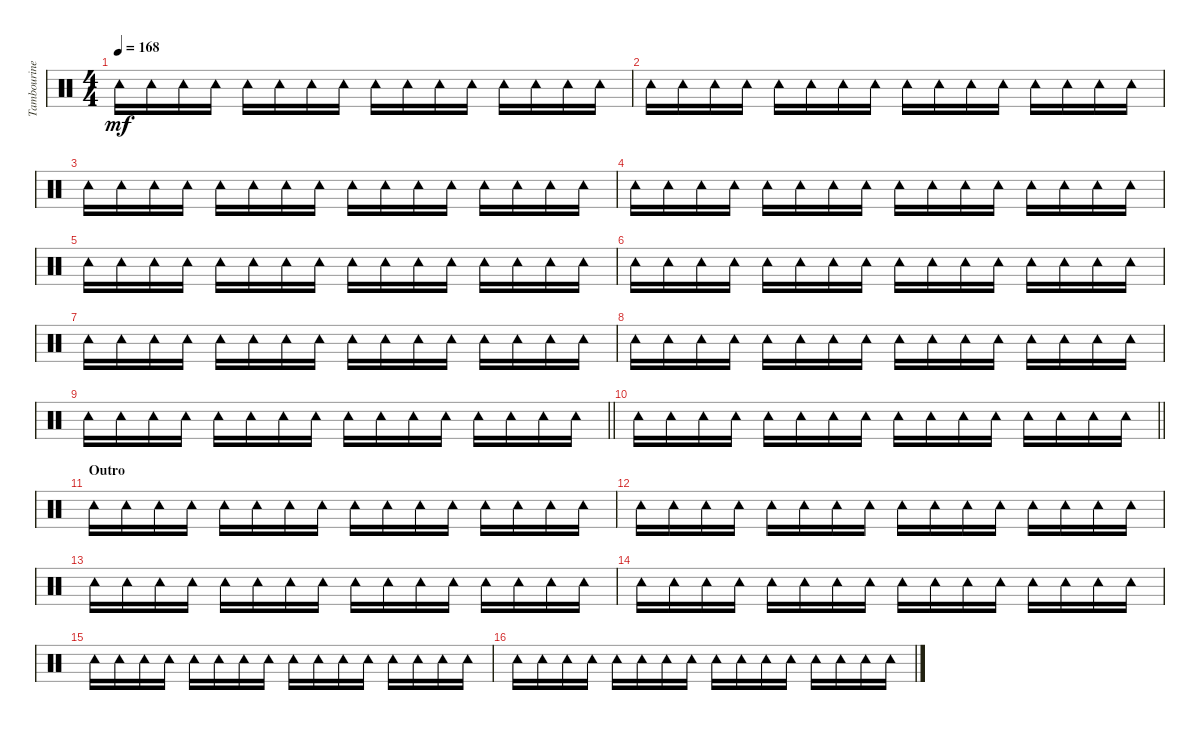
\track ("Tambourine" "Tambourine") {instrument percussion}
\staff {score}
\articulation defaults
\ts (4 4)
\tempo 168
\clef neutral
\ks c "Tambourine (hit)".16{dy mf} "Tambourine (hit)".16 "Tambourine (hit)".16 "Tambourine (hit)".16 "Tambourine (hit)".16 "Tambourine (hit)".16 "Tambourine (hit)".16 "Tambourine (hit)".16 "Tambourine (hit)".16 "Tambourine (hit)".16 "Tambourine (hit)".16 "Tambourine (hit)".16 "Tambourine (hit)".16 "Tambourine (hit)".16 "Tambourine (hit)".16 "Tambourine (hit)".16
|
"Tambourine (hit)".16 "Tambourine (hit)".16 "Tambourine (hit)".16 "Tambourine (hit)".16 "Tambourine (hit)".16 "Tambourine (hit)".16 "Tambourine (hit)".16 "Tambourine (hit)".16 "Tambourine (hit)".16 "Tambourine (hit)".16 "Tambourine (hit)".16 "Tambourine (hit)".16 "Tambourine (hit)".16 "Tambourine (hit)".16 "Tambourine (hit)".16 "Tambourine (hit)".16 |
"Tambourine (hit)".16 "Tambourine (hit)".16 "Tambourine (hit)".16 "Tambourine (hit)".16 "Tambourine (hit)".16 "Tambourine (hit)".16 "Tambourine (hit)".16 "Tambourine (hit)".16 "Tambourine (hit)".16 "Tambourine (hit)".16 "Tambourine (hit)".16 "Tambourine (hit)".16 "Tambourine (hit)".16 "Tambourine (hit)".16 "Tambourine (hit)".16 "Tambourine (hit)".16 |
"Tambourine (hit)".16 "Tambourine (hit)".16 "Tambourine (hit)".16 "Tambourine (hit)".16 "Tambourine (hit)".16 "Tambourine (hit)".16 "Tambourine (hit)".16 "Tambourine (hit)".16 "Tambourine (hit)".16 "Tambourine (hit)".16 "Tambourine (hit)".16 "Tambourine (hit)".16 "Tambourine (hit)".16 "Tambourine (hit)".16 "Tambourine (hit)".16 "Tambourine (hit)".16 |
"Tambourine (hit)".16 "Tambourine (hit)".16 "Tambourine (hit)".16 "Tambourine (hit)".16 "Tambourine (hit)".16 "Tambourine (hit)".16 "Tambourine (hit)".16 "Tambourine (hit)".16 "Tambourine (hit)".16 "Tambourine (hit)".16 "Tambourine (hit)".16 "Tambourine (hit)".16 "Tambourine (hit)".16 "Tambourine (hit)".16 "Tambourine (hit)".16 "Tambourine (hit)".16 |
"Tambourine (hit)".16 "Tambourine (hit)".16 "Tambourine (hit)".16 "Tambourine (hit)".16 "Tambourine (hit)".16 "Tambourine (hit)".16 "Tambourine (hit)".16 "Tambourine (hit)".16 "Tambourine (hit)".16 "Tambourine (hit)".16 "Tambourine (hit)".16 "Tambourine (hit)".16 "Tambourine (hit)".16 "Tambourine (hit)".16 "Tambourine (hit)".16 "Tambourine (hit)".16 |
"Tambourine (hit)".16 "Tambourine (hit)".16 "Tambourine (hit)".16 "Tambourine (hit)".16 "Tambourine (hit)".16 "Tambourine (hit)".16 "Tambourine (hit)".16 "Tambourine (hit)".16 "Tambourine (hit)".16 "Tambourine (hit)".16 "Tambourine (hit)".16 "Tambourine (hit)".16 "Tambourine (hit)".16 "Tambourine (hit)".16 "Tambourine (hit)".16 "Tambourine (hit)".16 |
"Tambourine (hit)".16 "Tambourine (hit)".16 "Tambourine (hit)".16 "Tambourine (hit)".16 "Tambourine (hit)".16 "Tambourine (hit)".16 "Tambourine (hit)".16 "Tambourine (hit)".16 "Tambourine (hit)".16 "Tambourine (hit)".16 "Tambourine (hit)".16 "Tambourine (hit)".16 "Tambourine (hit)".16 "Tambourine (hit)".16 "Tambourine (hit)".16 "Tambourine (hit)".16 |
\barLineRight lightlight "Tambourine (hit)".16 "Tambourine (hit)".16 "Tambourine (hit)".16 "Tambourine (hit)".16 "Tambourine (hit)".16 "Tambourine (hit)".16 "Tambourine (hit)".16 "Tambourine (hit)".16 "Tambourine (hit)".16 "Tambourine (hit)".16 "Tambourine (hit)".16 "Tambourine (hit)".16 "Tambourine (hit)".16 "Tambourine (hit)".16 "Tambourine (hit)".16 "Tambourine (hit)".16
|
\barLineRight lightlight "Tambourine (hit)".16 "Tambourine (hit)".16 "Tambourine (hit)".16 "Tambourine (hit)".16 "Tambourine (hit)".16 "Tambourine (hit)".16 "Tambourine (hit)".16 "Tambourine (hit)".16 "Tambourine (hit)".16 "Tambourine (hit)".16 "Tambourine (hit)".16 "Tambourine (hit)".16 "Tambourine (hit)".16 "Tambourine (hit)".16 "Tambourine (hit)".16 "Tambourine (hit)".16
|
\section ("" "Outro")
"Tambourine (hit)".16 "Tambourine (hit)".16 "Tambourine (hit)".16 "Tambourine (hit)".16 "Tambourine (hit)".16 "Tambourine (hit)".16 "Tambourine (hit)".16 "Tambourine (hit)".16 "Tambourine (hit)".16 "Tambourine (hit)".16 "Tambourine (hit)".16 "Tambourine (hit)".16 "Tambourine (hit)".16 "Tambourine (hit)".16 "Tambourine (hit)".16 "Tambourine (hit)".16 |
"Tambourine (hit)".16 "Tambourine (hit)".16 "Tambourine (hit)".16 "Tambourine (hit)".16 "Tambourine (hit)".16 "Tambourine (hit)".16 "Tambourine (hit)".16 "Tambourine (hit)".16 "Tambourine (hit)".16 "Tambourine (hit)".16 "Tambourine (hit)".16 "Tambourine (hit)".16 "Tambourine (hit)".16 "Tambourine (hit)".16 "Tambourine (hit)".16 "Tambourine (hit)".16 |
"Tambourine (hit)".16 "Tambourine (hit)".16 "Tambourine (hit)".16 "Tambourine (hit)".16 "Tambourine (hit)".16 "Tambourine (hit)".16 "Tambourine (hit)".16 "Tambourine (hit)".16 "Tambourine (hit)".16 "Tambourine (hit)".16 "Tambourine (hit)".16 "Tambourine (hit)".16 "Tambourine (hit)".16 "Tambourine (hit)".16 "Tambourine (hit)".16 "Tambourine (hit)".16 |
"Tambourine (hit)".16 "Tambourine (hit)".16 "Tambourine (hit)".16 "Tambourine (hit)".16 "Tambourine (hit)".16 "Tambourine (hit)".16 "Tambourine (hit)".16 "Tambourine (hit)".16 "Tambourine (hit)".16 "Tambourine (hit)".16 "Tambourine (hit)".16 "Tambourine (hit)".16 "Tambourine (hit)".16 "Tambourine (hit)".16 "Tambourine (hit)".16 "Tambourine (hit)".16 |
"Tambourine (hit)".16 "Tambourine (hit)".16 "Tambourine (hit)".16 "Tambourine (hit)".16 "Tambourine (hit)".16 "Tambourine (hit)".16 "Tambourine (hit)".16 "Tambourine (hit)".16 "Tambourine (hit)".16 "Tambourine (hit)".16 "Tambourine (hit)".16 "Tambourine (hit)".16 "Tambourine (hit)".16 "Tambourine (hit)".16 "Tambourine (hit)".16 "Tambourine (hit)".16 |
"Tambourine (hit)".16 "Tambourine (hit)".16 "Tambourine (hit)".16 "Tambourine (hit)".16 "Tambourine (hit)".16 "Tambourine (hit)".16 "Tambourine (hit)".16 "Tambourine (hit)".16 "Tambourine (hit)".16 "Tambourine (hit)".16 "Tambourine (hit)".16 "Tambourine (hit)".16 "Tambourine (hit)".16 "Tambourine (hit)".16 "Tambourine (hit)".16 "Tambourine (hit)".16
